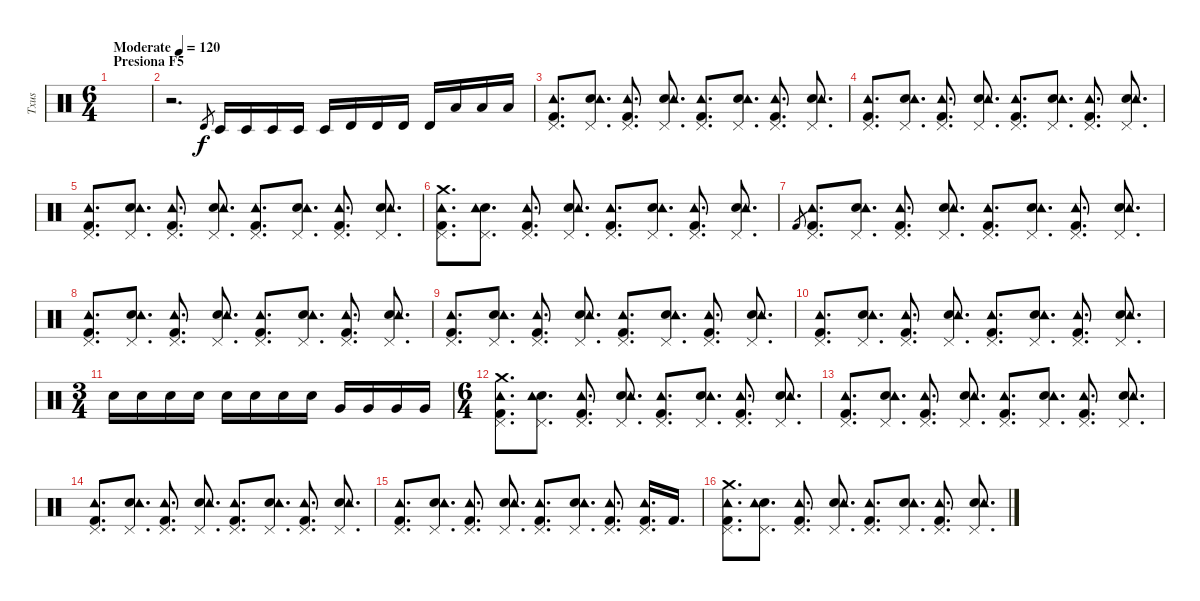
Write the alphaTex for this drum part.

\track ("Txus" "Txus") {instrument percussion}
\staff {score}
\articulation defaults
\ts (6 4)
\section ("" "Presiona F5")
\tempo (120 "Moderate")
\clef neutral
\ks c
|
r.2{d} "Timbale high (hit)".8{gr} "Timbale low (hit)".16 "Timbale low (hit)".16 "Timbale low (hit)".16 "Timbale low (hit)".16 "Timbale low (hit)".16 "Timbale high (hit)".16 "Timbale high (hit)".16 "Timbale high (hit)".16 "Timbale high (hit)".16 "Low Tom (hit)".16 "Low Tom (hit)".16 "Low Tom (hit)".16 |
("Kick (hit) 2" "Pedal Hi-Hat (hit)" "Tambourine (hit)").8{d} ("Snare (hit) 2" "Pedal Hi-Hat (hit)" "Tambourine (hit)").8{d} ("Kick (hit) 2" "Pedal Hi-Hat (hit)" "Tambourine (hit)").8{d} ("Snare (hit) 2" "Pedal Hi-Hat (hit)" "Tambourine (hit)").8{d} ("Kick (hit) 2" "Pedal Hi-Hat (hit)" "Tambourine (hit)").8{d} ("Snare (hit) 2" "Pedal Hi-Hat (hit)" "Tambourine (hit)").8{d} ("Kick (hit) 2" "Pedal Hi-Hat (hit)" "Tambourine (hit)").8{d} ("Snare (hit) 2" "Pedal Hi-Hat (hit)" "Tambourine (hit)").8{d} |
("Kick (hit) 2" "Pedal Hi-Hat (hit)" "Tambourine (hit)").8{d} ("Snare (hit) 2" "Pedal Hi-Hat (hit)" "Tambourine (hit)").8{d} ("Kick (hit) 2" "Pedal Hi-Hat (hit)" "Tambourine (hit)").8{d} ("Snare (hit) 2" "Pedal Hi-Hat (hit)" "Tambourine (hit)").8{d} ("Kick (hit) 2" "Pedal Hi-Hat (hit)" "Tambourine (hit)").8{d} ("Snare (hit) 2" "Pedal Hi-Hat (hit)" "Tambourine (hit)").8{d} ("Kick (hit) 2" "Pedal Hi-Hat (hit)" "Tambourine (hit)").8{d} ("Snare (hit) 2" "Pedal Hi-Hat (hit)" "Tambourine (hit)").8{d} |
("Kick (hit) 2" "Pedal Hi-Hat (hit)" "Tambourine (hit)").8{d} ("Snare (hit) 2" "Pedal Hi-Hat (hit)" "Tambourine (hit)").8{d} ("Kick (hit) 2" "Pedal Hi-Hat (hit)" "Tambourine (hit)").8{d} ("Snare (hit) 2" "Pedal Hi-Hat (hit)" "Tambourine (hit)").8{d} ("Kick (hit) 2" "Pedal Hi-Hat (hit)" "Tambourine (hit)").8{d} ("Snare (hit) 2" "Pedal Hi-Hat (hit)" "Tambourine (hit)").8{d} ("Kick (hit) 2" "Pedal Hi-Hat (hit)" "Tambourine (hit)").8{d} ("Snare (hit) 2" "Pedal Hi-Hat (hit)" "Tambourine (hit)").8{d} |
("Kick (hit) 2" "Pedal Hi-Hat (hit)" "Crash medium (hit)" "Tambourine (hit)").8{d} ("Snare (hit) 2" "Pedal Hi-Hat (hit)" "Tambourine (hit)").8{d} ("Kick (hit) 2" "Pedal Hi-Hat (hit)" "Tambourine (hit)").8{d} ("Snare (hit) 2" "Pedal Hi-Hat (hit)" "Tambourine (hit)").8{d} ("Kick (hit) 2" "Pedal Hi-Hat (hit)" "Tambourine (hit)").8{d} ("Snare (hit) 2" "Pedal Hi-Hat (hit)" "Tambourine (hit)").8{d} ("Kick (hit) 2" "Pedal Hi-Hat (hit)" "Tambourine (hit)").8{d} ("Snare (hit) 2" "Pedal Hi-Hat (hit)" "Tambourine (hit)").8{d} |
"Kick (hit) 2".8{gr} ("Kick (hit) 2" "Pedal Hi-Hat (hit)" "Tambourine (hit)").8{d} ("Snare (hit) 2" "Pedal Hi-Hat (hit)" "Tambourine (hit)").8{d} ("Kick (hit) 2" "Pedal Hi-Hat (hit)" "Tambourine (hit)").8{d} ("Snare (hit) 2" "Pedal Hi-Hat (hit)" "Tambourine (hit)").8{d} ("Kick (hit) 2" "Pedal Hi-Hat (hit)" "Tambourine (hit)").8{d} ("Snare (hit) 2" "Pedal Hi-Hat (hit)" "Tambourine (hit)").8{d} ("Kick (hit) 2" "Pedal Hi-Hat (hit)" "Tambourine (hit)").8{d} ("Snare (hit) 2" "Pedal Hi-Hat (hit)" "Tambourine (hit)").8{d} |
("Kick (hit) 2" "Pedal Hi-Hat (hit)" "Tambourine (hit)").8{d} ("Snare (hit) 2" "Pedal Hi-Hat (hit)" "Tambourine (hit)").8{d} ("Kick (hit) 2" "Pedal Hi-Hat (hit)" "Tambourine (hit)").8{d} ("Snare (hit) 2" "Pedal Hi-Hat (hit)" "Tambourine (hit)").8{d} ("Kick (hit) 2" "Pedal Hi-Hat (hit)" "Tambourine (hit)").8{d} ("Snare (hit) 2" "Pedal Hi-Hat (hit)" "Tambourine (hit)").8{d} ("Kick (hit) 2" "Pedal Hi-Hat (hit)" "Tambourine (hit)").8{d} ("Snare (hit) 2" "Pedal Hi-Hat (hit)" "Tambourine (hit)").8{d} |
("Kick (hit) 2" "Pedal Hi-Hat (hit)" "Tambourine (hit)").8{d} ("Snare (hit) 2" "Pedal Hi-Hat (hit)" "Tambourine (hit)").8{d} ("Kick (hit) 2" "Pedal Hi-Hat (hit)" "Tambourine (hit)").8{d} ("Snare (hit) 2" "Pedal Hi-Hat (hit)" "Tambourine (hit)").8{d} ("Kick (hit) 2" "Pedal Hi-Hat (hit)" "Tambourine (hit)").8{d} ("Snare (hit) 2" "Pedal Hi-Hat (hit)" "Tambourine (hit)").8{d} ("Kick (hit) 2" "Pedal Hi-Hat (hit)" "Tambourine (hit)").8{d} ("Snare (hit) 2" "Pedal Hi-Hat (hit)" "Tambourine (hit)").8{d} |
("Kick (hit) 2" "Pedal Hi-Hat (hit)" "Tambourine (hit)").8{d} ("Snare (hit) 2" "Pedal Hi-Hat (hit)" "Tambourine (hit)").8{d} ("Kick (hit) 2" "Pedal Hi-Hat (hit)" "Tambourine (hit)").8{d} ("Snare (hit) 2" "Pedal Hi-Hat (hit)" "Tambourine (hit)").8{d} ("Kick (hit) 2" "Pedal Hi-Hat (hit)" "Tambourine (hit)").8{d} ("Snare (hit) 2" "Pedal Hi-Hat (hit)" "Tambourine (hit)").8{d} ("Kick (hit) 2" "Pedal Hi-Hat (hit)" "Tambourine (hit)").8{d} ("Snare (hit) 2" "Pedal Hi-Hat (hit)" "Tambourine (hit)").8{d} |
\ts (3 4)
"Snare (hit) 2".16 "Snare (hit) 2".16 "Snare (hit) 2".16 "Snare (hit) 2".16 "Snare (hit) 2".16 "Snare (hit) 2".16 "Snare (hit) 2".16 "Snare (hit) 2".16 "Very Low Tom (hit)".16 "Very Low Tom (hit)".16 "Very Low Tom (hit)".16 "Very Low Tom (hit)".16 |
\ts (6 4)
("Kick (hit) 2" "Pedal Hi-Hat (hit)" "Crash medium (hit)" "Tambourine (hit)").8{d} ("Snare (hit) 2" "Pedal Hi-Hat (hit)" "Tambourine (hit)").8{d} ("Kick (hit) 2" "Pedal Hi-Hat (hit)" "Tambourine (hit)").8{d} ("Snare (hit) 2" "Pedal Hi-Hat (hit)" "Tambourine (hit)").8{d} ("Kick (hit) 2" "Pedal Hi-Hat (hit)" "Tambourine (hit)").8{d} ("Snare (hit) 2" "Pedal Hi-Hat (hit)" "Tambourine (hit)").8{d} ("Kick (hit) 2" "Pedal Hi-Hat (hit)" "Tambourine (hit)").8{d} ("Snare (hit) 2" "Pedal Hi-Hat (hit)" "Tambourine (hit)").8{d} |
("Kick (hit) 2" "Pedal Hi-Hat (hit)" "Tambourine (hit)").8{d} ("Snare (hit) 2" "Pedal Hi-Hat (hit)" "Tambourine (hit)").8{d} ("Kick (hit) 2" "Pedal Hi-Hat (hit)" "Tambourine (hit)").8{d} ("Snare (hit) 2" "Pedal Hi-Hat (hit)" "Tambourine (hit)").8{d} ("Kick (hit) 2" "Pedal Hi-Hat (hit)" "Tambourine (hit)").8{d} ("Snare (hit) 2" "Pedal Hi-Hat (hit)" "Tambourine (hit)").8{d} ("Kick (hit) 2" "Pedal Hi-Hat (hit)" "Tambourine (hit)").8{d} ("Snare (hit) 2" "Pedal Hi-Hat (hit)" "Tambourine (hit)").8{d} |
("Kick (hit) 2" "Pedal Hi-Hat (hit)" "Tambourine (hit)").8{d} ("Snare (hit) 2" "Pedal Hi-Hat (hit)" "Tambourine (hit)").8{d} ("Kick (hit) 2" "Pedal Hi-Hat (hit)" "Tambourine (hit)").8{d} ("Snare (hit) 2" "Pedal Hi-Hat (hit)" "Tambourine (hit)").8{d} ("Kick (hit) 2" "Pedal Hi-Hat (hit)" "Tambourine (hit)").8{d} ("Snare (hit) 2" "Pedal Hi-Hat (hit)" "Tambourine (hit)").8{d} ("Kick (hit) 2" "Pedal Hi-Hat (hit)" "Tambourine (hit)").8{d} ("Snare (hit) 2" "Pedal Hi-Hat (hit)" "Tambourine (hit)").8{d} |
("Kick (hit) 2" "Pedal Hi-Hat (hit)" "Tambourine (hit)").8{d} ("Snare (hit) 2" "Pedal Hi-Hat (hit)" "Tambourine (hit)").8{d} ("Kick (hit) 2" "Pedal Hi-Hat (hit)" "Tambourine (hit)").8{d} ("Snare (hit) 2" "Pedal Hi-Hat (hit)" "Tambourine (hit)").8{d} ("Kick (hit) 2" "Pedal Hi-Hat (hit)" "Tambourine (hit)").8{d} ("Snare (hit) 2" "Pedal Hi-Hat (hit)" "Tambourine (hit)").8{d} ("Kick (hit) 2" "Pedal Hi-Hat (hit)" "Tambourine (hit)").8{d} ("Kick (hit) 2" "Pedal Hi-Hat (hit)" "Tambourine (hit)").16{d} "Kick (hit) 2".16{d} |
("Kick (hit) 2" "Pedal Hi-Hat (hit)" "Crash medium (hit)" "Tambourine (hit)").8{d} ("Snare (hit) 2" "Pedal Hi-Hat (hit)" "Tambourine (hit)").8{d} ("Kick (hit) 2" "Pedal Hi-Hat (hit)" "Tambourine (hit)").8{d} ("Snare (hit) 2" "Pedal Hi-Hat (hit)" "Tambourine (hit)").8{d} ("Kick (hit) 2" "Pedal Hi-Hat (hit)" "Tambourine (hit)").8{d} ("Snare (hit) 2" "Pedal Hi-Hat (hit)" "Tambourine (hit)").8{d} ("Kick (hit) 2" "Pedal Hi-Hat (hit)" "Tambourine (hit)").8{d} ("Snare (hit) 2" "Pedal Hi-Hat (hit)" "Tambourine (hit)").8{d}
